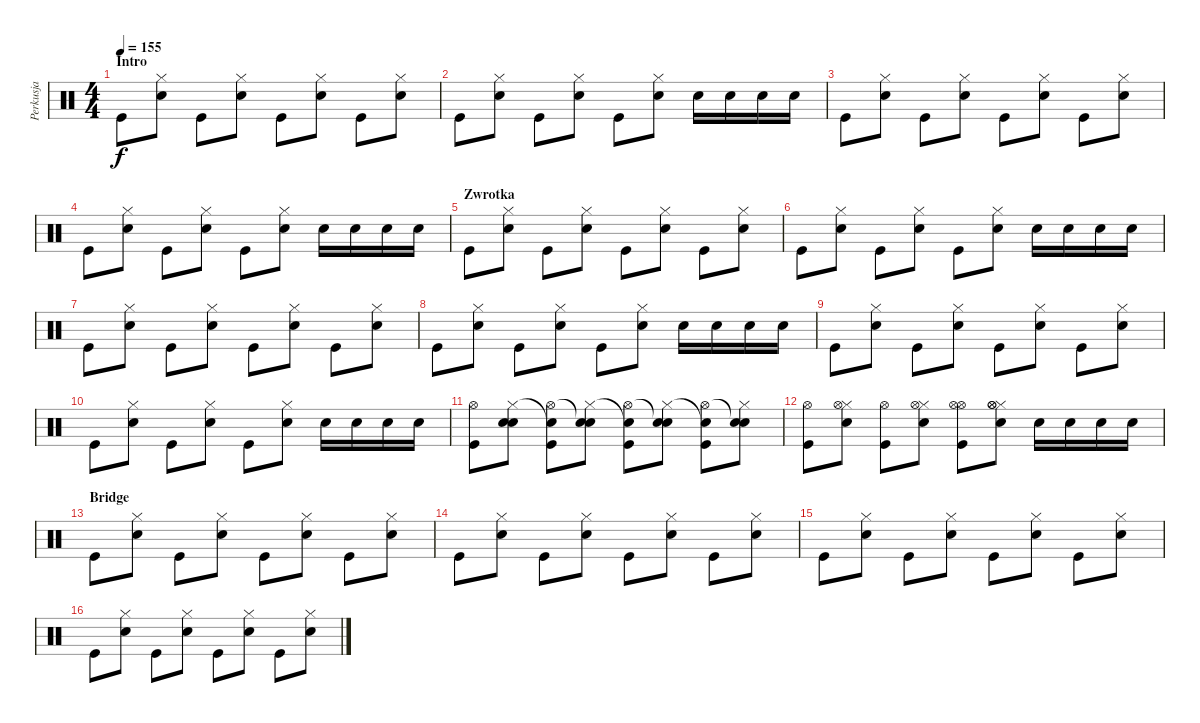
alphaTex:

\track ("Perkusja" "Perkusja") {instrument percussion}
\staff {score}
\articulation defaults
\ts (4 4)
\section ("" "Intro")
\tempo 155
\clef neutral
\ks c "Kick (hit)".8{dy f}
("Snare (hit) 2" "Hi-Hat (closed)").8 "Kick (hit)".8 ("Snare (hit) 2" "Hi-Hat (closed)").8 "Kick (hit)".8 ("Snare (hit) 2" "Hi-Hat (closed)").8 "Kick (hit)".8 ("Snare (hit) 2" "Hi-Hat (closed)").8 |
"Kick (hit)".8 ("Snare (hit) 2" "Hi-Hat (closed)").8 "Kick (hit)".8 ("Snare (hit) 2" "Hi-Hat (closed)").8 "Kick (hit)".8 ("Snare (hit) 2" "Hi-Hat (closed)").8 "Snare (hit) 2".16 "Snare (hit) 2".16 "Snare (hit) 2".16 "Snare (hit) 2".16 |
"Kick (hit)".8 ("Snare (hit) 2" "Hi-Hat (closed)").8 "Kick (hit)".8 ("Snare (hit) 2" "Hi-Hat (closed)").8 "Kick (hit)".8 ("Snare (hit) 2" "Hi-Hat (closed)").8 "Kick (hit)".8 ("Snare (hit) 2" "Hi-Hat (closed)").8 |
"Kick (hit)".8 ("Snare (hit) 2" "Hi-Hat (closed)").8 "Kick (hit)".8 ("Snare (hit) 2" "Hi-Hat (closed)").8 "Kick (hit)".8 ("Snare (hit) 2" "Hi-Hat (closed)").8 "Snare (hit) 2".16 "Snare (hit) 2".16 "Snare (hit) 2".16 "Snare (hit) 2".16 |
\section ("" "Zwrotka")
"Kick (hit)".8 ("Snare (hit) 2" "Hi-Hat (closed)").8 "Kick (hit)".8 ("Snare (hit) 2" "Hi-Hat (closed)").8 "Kick (hit)".8 ("Snare (hit) 2" "Hi-Hat (closed)").8 "Kick (hit)".8 ("Snare (hit) 2" "Hi-Hat (closed)").8 |
"Kick (hit)".8 ("Snare (hit) 2" "Hi-Hat (closed)").8 "Kick (hit)".8 ("Snare (hit) 2" "Hi-Hat (closed)").8 "Kick (hit)".8 ("Snare (hit) 2" "Hi-Hat (closed)").8 "Snare (hit) 2".16 "Snare (hit) 2".16 "Snare (hit) 2".16 "Snare (hit) 2".16 |
"Kick (hit)".8 ("Snare (hit) 2" "Hi-Hat (closed)").8 "Kick (hit)".8 ("Snare (hit) 2" "Hi-Hat (closed)").8 "Kick (hit)".8 ("Snare (hit) 2" "Hi-Hat (closed)").8 "Kick (hit)".8 ("Snare (hit) 2" "Hi-Hat (closed)").8 |
"Kick (hit)".8 ("Snare (hit) 2" "Hi-Hat (closed)").8 "Kick (hit)".8 ("Snare (hit) 2" "Hi-Hat (closed)").8 "Kick (hit)".8 ("Snare (hit) 2" "Hi-Hat (closed)").8 "Snare (hit) 2".16 "Snare (hit) 2".16 "Snare (hit) 2".16 "Snare (hit) 2".16 |
"Kick (hit)".8 ("Snare (hit) 2" "Hi-Hat (closed)").8 "Kick (hit)".8 ("Snare (hit) 2" "Hi-Hat (closed)").8 "Kick (hit)".8 ("Snare (hit) 2" "Hi-Hat (closed)").8 "Kick (hit)".8 ("Snare (hit) 2" "Hi-Hat (closed)").8 |
"Kick (hit)".8 ("Snare (hit) 2" "Hi-Hat (closed)").8 "Kick (hit)".8 ("Snare (hit) 2" "Hi-Hat (closed)").8 "Kick (hit)".8 ("Snare (hit) 2" "Hi-Hat (closed)").8 "Snare (hit) 2".16 "Snare (hit) 2".16 "Snare (hit) 2".16 "Snare (hit) 2".16 |
("Kick (hit)" "Hi-Hat (open)").8 ("Snare (hit) 2" "Hi-Hat (closed)" "Snare (hit)").8 ("Kick (hit)" "Snare (hit)"{t} "Hi-Hat (open)").8 ("Snare (hit) 2" "Hi-Hat (closed)" "Snare (hit)"{t}).8 ("Kick (hit)" "Snare (hit)"{t} "Hi-Hat (open)").8 ("Snare (hit) 2" "Hi-Hat (closed)" "Snare (hit)"{t}).8 ("Kick (hit)" "Snare (hit)"{t} "Hi-Hat (open)").8 ("Snare (hit) 2" "Hi-Hat (closed)" "Snare (hit)"{t}).8 |
("Kick (hit)" "Hi-Hat (open)").8 ("Snare (hit) 2" "Hi-Hat (closed)" "Hi-Hat (open)").8 ("Kick (hit)" "Hi-Hat (open)").8 ("Snare (hit) 2" "Hi-Hat (closed)" "Hi-Hat (open)").8 ("Kick (hit)" "Hi-Hat (open)" "Hi-Hat (open)").8 ("Snare (hit) 2" "Hi-Hat (closed)" "Hi-Hat (open)" "Hi-Hat (open)").8 "Snare (hit) 2".16 "Snare (hit) 2".16 "Snare (hit) 2".16 "Snare (hit) 2".16 |
\section ("" "Bridge")
"Kick (hit)".8 ("Snare (hit) 2" "Hi-Hat (closed)").8 "Kick (hit)".8 ("Snare (hit) 2" "Hi-Hat (closed)").8 "Kick (hit)".8 ("Snare (hit) 2" "Hi-Hat (closed)").8 "Kick (hit)".8 ("Snare (hit) 2" "Hi-Hat (closed)").8 |
"Kick (hit)".8 ("Snare (hit) 2" "Hi-Hat (closed)").8 "Kick (hit)".8 ("Snare (hit) 2" "Hi-Hat (closed)").8 "Kick (hit)".8 ("Snare (hit) 2" "Hi-Hat (closed)").8 "Kick (hit)".8 ("Snare (hit) 2" "Hi-Hat (closed)").8 |
"Kick (hit)".8 ("Snare (hit) 2" "Hi-Hat (closed)").8 "Kick (hit)".8 ("Snare (hit) 2" "Hi-Hat (closed)").8 "Kick (hit)".8 ("Snare (hit) 2" "Hi-Hat (closed)").8 "Kick (hit)".8 ("Snare (hit) 2" "Hi-Hat (closed)").8 |
"Kick (hit)".8 ("Snare (hit) 2" "Hi-Hat (closed)").8 "Kick (hit)".8 ("Snare (hit) 2" "Hi-Hat (closed)").8 "Kick (hit)".8 ("Snare (hit) 2" "Hi-Hat (closed)").8 "Kick (hit)".8 ("Snare (hit) 2" "Hi-Hat (closed)").8
